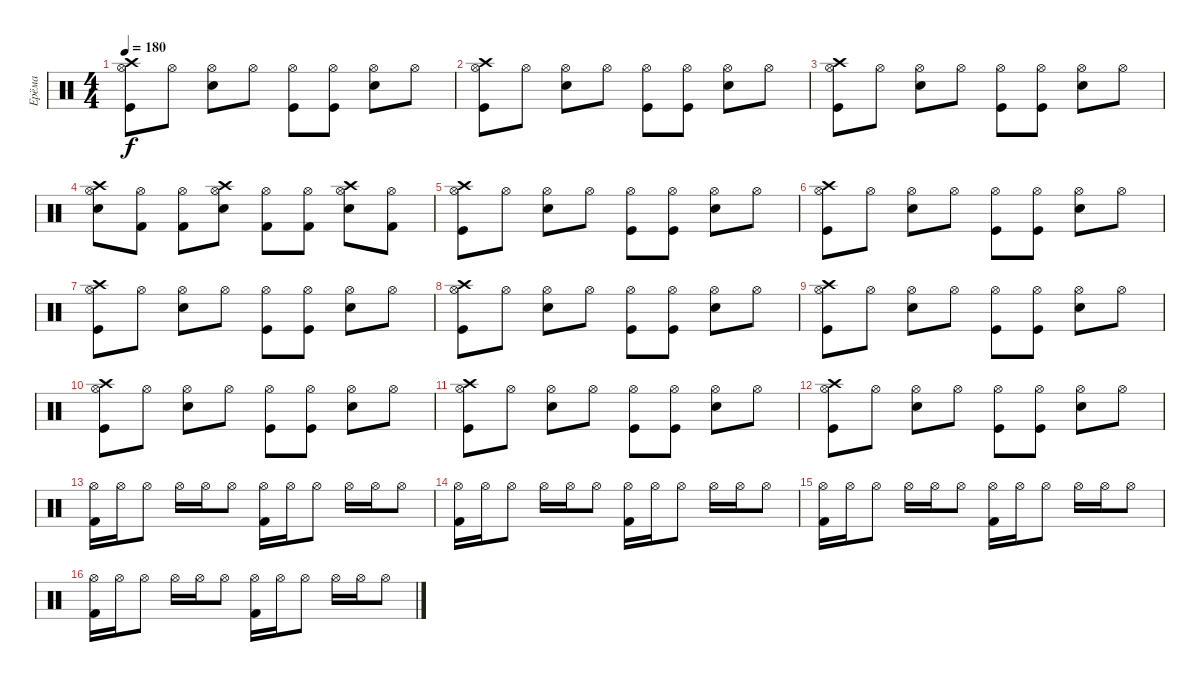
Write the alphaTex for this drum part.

\track ("Ерёма" "Ерёма") {instrument percussion}
\staff {score}
\articulation defaults
\ts (4 4)
\tempo 180
\clef neutral
\ks c
("Hi-Hat (open)" "Kick (hit)" "Crash high (hit)").8{dy f} "Hi-Hat (open)".8 ("Hi-Hat (open)" "Electric Snare (hit)").8 "Hi-Hat (open)".8 ("Hi-Hat (open)" "Kick (hit)").8 ("Hi-Hat (open)" "Kick (hit)").8 ("Hi-Hat (open)" "Electric Snare (hit)").8 "Hi-Hat (open)".8 |
("Hi-Hat (open)" "Kick (hit)" "Crash high (hit)").8 "Hi-Hat (open)".8 ("Hi-Hat (open)" "Electric Snare (hit)").8 "Hi-Hat (open)".8 ("Hi-Hat (open)" "Kick (hit)").8 ("Hi-Hat (open)" "Kick (hit)").8 ("Hi-Hat (open)" "Electric Snare (hit)").8 "Hi-Hat (open)".8 |
("Hi-Hat (open)" "Kick (hit)" "Crash high (hit)").8 "Hi-Hat (open)".8 ("Hi-Hat (open)" "Electric Snare (hit)").8 "Hi-Hat (open)".8 ("Hi-Hat (open)" "Kick (hit)").8 ("Hi-Hat (open)" "Kick (hit)").8 ("Hi-Hat (open)" "Electric Snare (hit)").8 "Hi-Hat (open)".8 |
("Hi-Hat (open)" "Electric Snare (hit)" "Crash high (hit)").8 ("Hi-Hat (open)" "Kick (hit) 2").8 ("Hi-Hat (open)" "Kick (hit) 2").8 ("Hi-Hat (open)" "Electric Snare (hit)" "Crash high (hit)").8 ("Hi-Hat (open)" "Kick (hit) 2").8 ("Hi-Hat (open)" "Kick (hit) 2").8 ("Hi-Hat (open)" "Electric Snare (hit)" "Crash high (hit)").8 ("Hi-Hat (open)" "Kick (hit) 2").8 |
("Hi-Hat (open)" "Kick (hit)" "Crash high (hit)").8 "Hi-Hat (open)".8 ("Hi-Hat (open)" "Electric Snare (hit)").8 "Hi-Hat (open)".8 ("Hi-Hat (open)" "Kick (hit)").8 ("Hi-Hat (open)" "Kick (hit)").8 ("Hi-Hat (open)" "Electric Snare (hit)").8 "Hi-Hat (open)".8 |
("Hi-Hat (open)" "Kick (hit)" "Crash high (hit)").8 "Hi-Hat (open)".8 ("Hi-Hat (open)" "Electric Snare (hit)").8 "Hi-Hat (open)".8 ("Hi-Hat (open)" "Kick (hit)").8 ("Hi-Hat (open)" "Kick (hit)").8 ("Hi-Hat (open)" "Electric Snare (hit)").8 "Hi-Hat (open)".8 |
("Hi-Hat (open)" "Kick (hit)" "Crash high (hit)").8 "Hi-Hat (open)".8 ("Hi-Hat (open)" "Electric Snare (hit)").8 "Hi-Hat (open)".8 ("Hi-Hat (open)" "Kick (hit)").8 ("Hi-Hat (open)" "Kick (hit)").8 ("Hi-Hat (open)" "Electric Snare (hit)").8 "Hi-Hat (open)".8 |
("Hi-Hat (open)" "Kick (hit)" "Crash high (hit)").8 "Hi-Hat (open)".8 ("Hi-Hat (open)" "Electric Snare (hit)").8 "Hi-Hat (open)".8 ("Hi-Hat (open)" "Kick (hit)").8 ("Hi-Hat (open)" "Kick (hit)").8 ("Hi-Hat (open)" "Electric Snare (hit)").8 "Hi-Hat (open)".8 |
("Hi-Hat (open)" "Kick (hit)" "Crash high (hit)").8 "Hi-Hat (open)".8 ("Hi-Hat (open)" "Electric Snare (hit)").8 "Hi-Hat (open)".8 ("Hi-Hat (open)" "Kick (hit)").8 ("Hi-Hat (open)" "Kick (hit)").8 ("Hi-Hat (open)" "Electric Snare (hit)").8 "Hi-Hat (open)".8 |
("Hi-Hat (open)" "Kick (hit)" "Crash high (hit)").8 "Hi-Hat (open)".8 ("Hi-Hat (open)" "Electric Snare (hit)").8 "Hi-Hat (open)".8 ("Hi-Hat (open)" "Kick (hit)").8 ("Hi-Hat (open)" "Kick (hit)").8 ("Hi-Hat (open)" "Electric Snare (hit)").8 "Hi-Hat (open)".8 |
("Hi-Hat (open)" "Kick (hit)" "Crash high (hit)").8 "Hi-Hat (open)".8 ("Hi-Hat (open)" "Electric Snare (hit)").8 "Hi-Hat (open)".8 ("Hi-Hat (open)" "Kick (hit)").8 ("Hi-Hat (open)" "Kick (hit)").8 ("Hi-Hat (open)" "Electric Snare (hit)").8 "Hi-Hat (open)".8 |
("Hi-Hat (open)" "Kick (hit)" "Crash high (hit)").8 "Hi-Hat (open)".8 ("Hi-Hat (open)" "Electric Snare (hit)").8 "Hi-Hat (open)".8 ("Hi-Hat (open)" "Kick (hit)").8 ("Hi-Hat (open)" "Kick (hit)").8 ("Hi-Hat (open)" "Electric Snare (hit)").8 "Hi-Hat (open)".8 |
("Hi-Hat (open)" "Kick (hit) 2").16 "Hi-Hat (open)".16 "Hi-Hat (open)".8 "Hi-Hat (open)".16 "Hi-Hat (open)".16 "Hi-Hat (open)".8 ("Hi-Hat (open)" "Kick (hit) 2").16 "Hi-Hat (open)".16 "Hi-Hat (open)".8 "Hi-Hat (open)".16 "Hi-Hat (open)".16 "Hi-Hat (open)".8 |
("Hi-Hat (open)" "Kick (hit) 2").16 "Hi-Hat (open)".16 "Hi-Hat (open)".8 "Hi-Hat (open)".16 "Hi-Hat (open)".16 "Hi-Hat (open)".8 ("Hi-Hat (open)" "Kick (hit) 2").16 "Hi-Hat (open)".16 "Hi-Hat (open)".8 "Hi-Hat (open)".16 "Hi-Hat (open)".16 "Hi-Hat (open)".8 |
("Hi-Hat (open)" "Kick (hit) 2").16 "Hi-Hat (open)".16 "Hi-Hat (open)".8 "Hi-Hat (open)".16 "Hi-Hat (open)".16 "Hi-Hat (open)".8 ("Hi-Hat (open)" "Kick (hit) 2").16 "Hi-Hat (open)".16 "Hi-Hat (open)".8 "Hi-Hat (open)".16 "Hi-Hat (open)".16 "Hi-Hat (open)".8 |
("Hi-Hat (open)" "Kick (hit) 2").16 "Hi-Hat (open)".16 "Hi-Hat (open)".8 "Hi-Hat (open)".16 "Hi-Hat (open)".16 "Hi-Hat (open)".8 ("Hi-Hat (open)" "Kick (hit) 2").16 "Hi-Hat (open)".16 "Hi-Hat (open)".8 "Hi-Hat (open)".16 "Hi-Hat (open)".16 "Hi-Hat (open)".8
